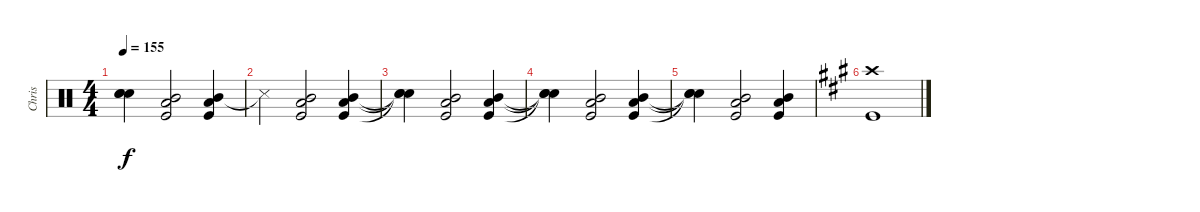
\track ("Chris" "Chris") {instrument percussion}
\staff {score}
\articulation defaults
\ts (4 4)
\tempo 155
\clef neutral
\ks c
("Snare (hit)"{t} "Snare (hit)"{t} "Snare (hit)"{t}).4{dy f} ("Mid Tom (hit)" "Kick (hit)" "Low Floor Tom (hit)").2 ("Mid Tom (hit)" "Kick (hit)" "Low Floor Tom (hit)").4 |
"Snare (side stick) 3"{t}.4 ("Mid Tom (hit)" "Kick (hit)" "Low Floor Tom (hit)").2 ("Mid Tom (hit)" "Kick (hit)" "Low Floor Tom (hit)").4 |
("Snare (hit)"{t} "Snare (hit)"{t} "Snare (hit)"{t}).4 ("Mid Tom (hit)" "Kick (hit)" "Low Floor Tom (hit)").2 ("Mid Tom (hit)" "Kick (hit)" "Low Floor Tom (hit)").4 |
("Snare (hit)"{t} "Snare (hit)"{t} "Snare (hit)"{t}).4 ("Mid Tom (hit)" "Kick (hit)" "Low Floor Tom (hit)").2 ("Mid Tom (hit)" "Kick (hit)" "Low Floor Tom (hit)").4 |
("Snare (hit)"{t} "Snare (hit)"{t} "Snare (hit)"{t}).4 ("Mid Tom (hit)" "Kick (hit)" "Low Floor Tom (hit)").2 ("Mid Tom (hit)" "Kick (hit)" "Low Floor Tom (hit)").4 |
\ks a
("Crash high (hit)" "Kick (hit)").1
